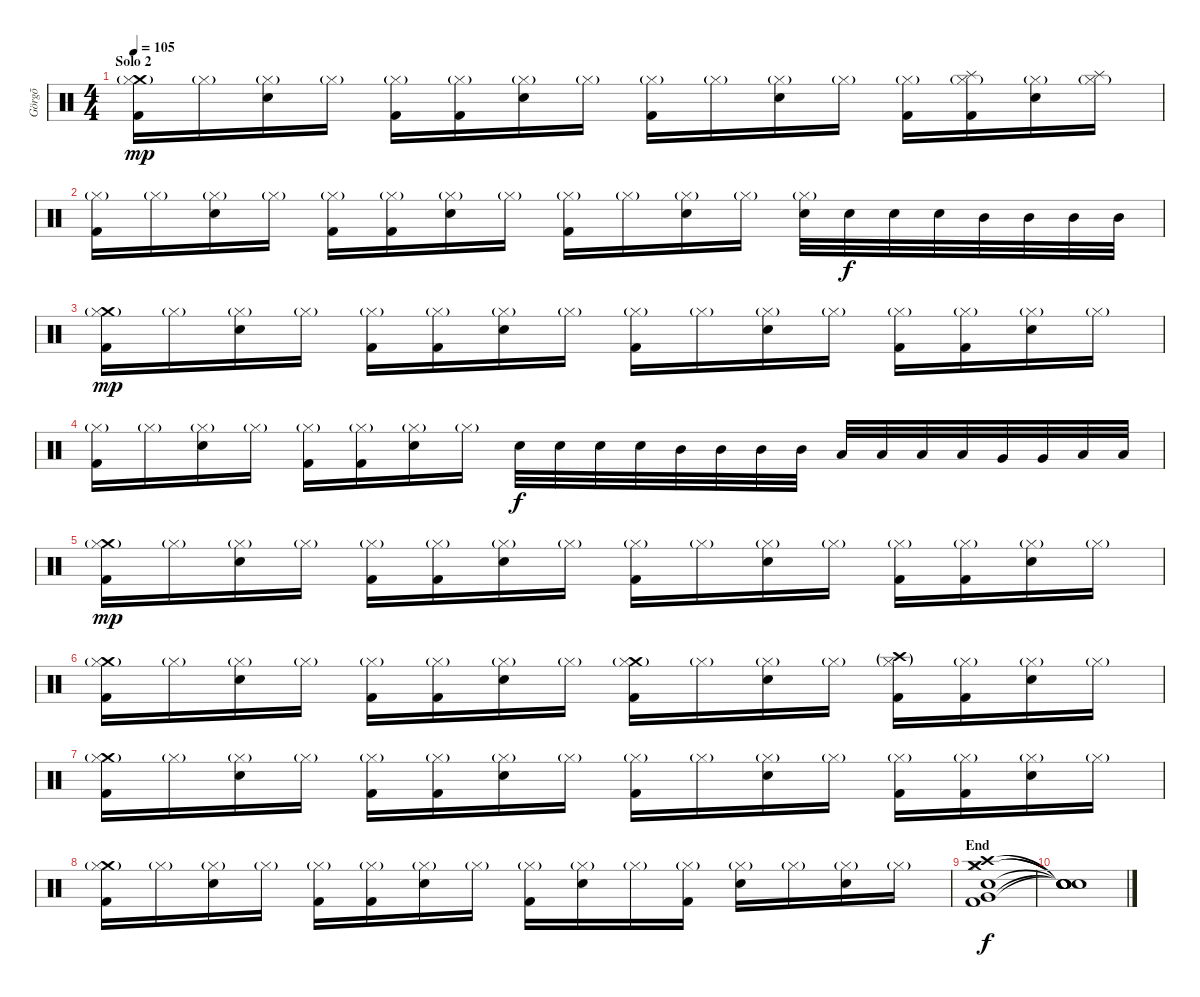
\track ("Görgõ" "Görgõ") {instrument percussion}
\staff {score}
\articulation defaults
\ts (4 4)
\section ("" "Solo 2")
\tempo 105
\clef neutral
\ks c
("Crash medium (hit)" "Hi-Hat (closed)"{g} "Kick (hit) 2").16{dy mp} "Hi-Hat (closed)"{g}.16 ("Hi-Hat (closed)"{g} "Snare (hit) 2").16 "Hi-Hat (closed)"{g}.16 ("Hi-Hat (closed)"{g} "Kick (hit) 2").16 ("Hi-Hat (closed)"{g} "Kick (hit) 2").16 ("Hi-Hat (closed)"{g} "Snare (hit) 2").16 "Hi-Hat (closed)"{g}.16 ("Hi-Hat (closed)"{g} "Kick (hit) 2").16 "Hi-Hat (closed)"{g}.16 ("Hi-Hat (closed)"{g} "Snare (hit) 2").16 "Hi-Hat (closed)"{g}.16 ("Hi-Hat (closed)"{g} "Kick (hit) 2").16 ("Splash (hit)" "Hi-Hat (closed)"{g} "Kick (hit) 2").16 ("Hi-Hat (closed)"{g} "Snare (hit) 2").16 ("Splash (hit)" "Hi-Hat (closed)"{g}).16 |
("Hi-Hat (closed)"{g} "Kick (hit) 2").16 "Hi-Hat (closed)"{g}.16 ("Hi-Hat (closed)"{g} "Snare (hit) 2").16 "Hi-Hat (closed)"{g}.16 ("Hi-Hat (closed)"{g} "Kick (hit) 2").16 ("Hi-Hat (closed)"{g} "Kick (hit) 2").16 ("Hi-Hat (closed)"{g} "Snare (hit) 2").16 "Hi-Hat (closed)"{g}.16 ("Hi-Hat (closed)"{g} "Kick (hit) 2").16 "Hi-Hat (closed)"{g}.16 ("Hi-Hat (closed)"{g} "Snare (hit) 2").16 "Hi-Hat (closed)"{g}.16 ("Hi-Hat (closed)"{g} "Snare (hit) 2").32 "Snare (hit) 2".32{dy f} "Snare (hit) 2".32 "Snare (hit) 2".32 "Mid Tom (hit)".32 "Mid Tom (hit)".32 "Mid Tom (hit)".32 "Mid Tom (hit)".32 |
("Crash medium (hit)" "Hi-Hat (closed)"{g} "Kick (hit) 2").16{dy mp} "Hi-Hat (closed)"{g}.16 ("Hi-Hat (closed)"{g} "Snare (hit) 2").16 "Hi-Hat (closed)"{g}.16 ("Hi-Hat (closed)"{g} "Kick (hit) 2").16 ("Hi-Hat (closed)"{g} "Kick (hit) 2").16 ("Hi-Hat (closed)"{g} "Snare (hit) 2").16 "Hi-Hat (closed)"{g}.16 ("Hi-Hat (closed)"{g} "Kick (hit) 2").16 "Hi-Hat (closed)"{g}.16 ("Hi-Hat (closed)"{g} "Snare (hit) 2").16 "Hi-Hat (closed)"{g}.16 ("Hi-Hat (closed)"{g} "Kick (hit) 2").16 ("Hi-Hat (closed)"{g} "Kick (hit) 2").16 ("Hi-Hat (closed)"{g} "Snare (hit) 2").16 "Hi-Hat (closed)"{g}.16 |
("Hi-Hat (closed)"{g} "Kick (hit) 2").16 "Hi-Hat (closed)"{g}.16 ("Hi-Hat (closed)"{g} "Snare (hit) 2").16 "Hi-Hat (closed)"{g}.16 ("Hi-Hat (closed)"{g} "Kick (hit) 2").16 ("Hi-Hat (closed)"{g} "Kick (hit) 2").16 ("Hi-Hat (closed)"{g} "Snare (hit) 2").16 "Hi-Hat (closed)"{g}.16 "Snare (hit) 2".32{dy f} "Snare (hit) 2".32 "Snare (hit) 2".32 "Snare (hit) 2".32 "Mid Tom (hit)".32 "Mid Tom (hit)".32 "Mid Tom (hit)".32 "Mid Tom (hit)".32 "Low Tom (hit)".32 "Low Tom (hit)".32 "Low Tom (hit)".32 "Low Tom (hit)".32 "Very Low Tom (hit)".32 "Very Low Tom (hit)".32 "Low Floor Tom (hit)".32 "Low Floor Tom (hit)".32 |
("Crash medium (hit)" "Hi-Hat (closed)"{g} "Kick (hit) 2").16{dy mp} "Hi-Hat (closed)"{g}.16 ("Hi-Hat (closed)"{g} "Snare (hit) 2").16 "Hi-Hat (closed)"{g}.16 ("Hi-Hat (closed)"{g} "Kick (hit) 2").16 ("Hi-Hat (closed)"{g} "Kick (hit) 2").16 ("Hi-Hat (closed)"{g} "Snare (hit) 2").16 "Hi-Hat (closed)"{g}.16 ("Hi-Hat (closed)"{g} "Kick (hit) 2").16 "Hi-Hat (closed)"{g}.16 ("Hi-Hat (closed)"{g} "Snare (hit) 2").16 "Hi-Hat (closed)"{g}.16 ("Hi-Hat (closed)"{g} "Kick (hit) 2").16 ("Hi-Hat (closed)"{g} "Kick (hit) 2").16 ("Hi-Hat (closed)"{g} "Snare (hit) 2").16 "Hi-Hat (closed)"{g}.16 |
("Crash medium (hit)" "Hi-Hat (closed)"{g} "Kick (hit) 2").16 "Hi-Hat (closed)"{g}.16 ("Hi-Hat (closed)"{g} "Snare (hit) 2").16 "Hi-Hat (closed)"{g}.16 ("Hi-Hat (closed)"{g} "Kick (hit) 2").16 ("Hi-Hat (closed)"{g} "Kick (hit) 2").16 ("Hi-Hat (closed)"{g} "Snare (hit) 2").16 "Hi-Hat (closed)"{g}.16 ("Crash medium (hit)"{g} "Hi-Hat (closed)"{g} "Kick (hit) 2").16 "Hi-Hat (closed)"{g}.16 ("Hi-Hat (closed)"{g} "Snare (hit) 2").16 "Hi-Hat (closed)"{g}.16 ("Crash high (hit)"{g} "Hi-Hat (closed)"{g} "Kick (hit) 2").16 ("Hi-Hat (closed)"{g} "Kick (hit) 2").16 ("Hi-Hat (closed)"{g} "Snare (hit) 2").16 "Hi-Hat (closed)"{g}.16 |
("Crash medium (hit)" "Hi-Hat (closed)"{g} "Kick (hit) 2").16 "Hi-Hat (closed)"{g}.16 ("Hi-Hat (closed)"{g} "Snare (hit) 2").16 "Hi-Hat (closed)"{g}.16 ("Hi-Hat (closed)"{g} "Kick (hit) 2").16 ("Hi-Hat (closed)"{g} "Kick (hit) 2").16 ("Hi-Hat (closed)"{g} "Snare (hit) 2").16 "Hi-Hat (closed)"{g}.16 ("Hi-Hat (closed)"{g} "Kick (hit) 2").16 "Hi-Hat (closed)"{g}.16 ("Hi-Hat (closed)"{g} "Snare (hit) 2").16 "Hi-Hat (closed)"{g}.16 ("Hi-Hat (closed)"{g} "Kick (hit) 2").16 ("Hi-Hat (closed)"{g} "Kick (hit) 2").16 ("Hi-Hat (closed)"{g} "Snare (hit) 2").16 "Hi-Hat (closed)"{g}.16 |
("Crash medium (hit)" "Hi-Hat (closed)"{g} "Kick (hit) 2").16 "Hi-Hat (closed)"{g}.16 ("Hi-Hat (closed)"{g} "Snare (hit) 2").16 "Hi-Hat (closed)"{g}.16 ("Hi-Hat (closed)"{g} "Kick (hit) 2").16 ("Hi-Hat (closed)"{g} "Kick (hit) 2").16 ("Hi-Hat (closed)"{g} "Snare (hit) 2").16 "Hi-Hat (closed)"{g}.16 ("Hi-Hat (closed)"{g} "Kick (hit) 2").16 ("Hi-Hat (closed)"{g} "Snare (hit) 2").16 "Hi-Hat (closed)"{g}.16 ("Hi-Hat (closed)"{g} "Kick (hit) 2").16 ("Hi-Hat (closed)"{g} "Snare (hit) 2").16 "Hi-Hat (closed)"{g}.16 ("Hi-Hat (closed)"{g} "Snare (hit) 2").16 "Hi-Hat (closed)"{g}.16 |
\section ("" "End")
("Crash high (hit)" "Crash medium (hit)" "Hi-Hat (closed)" "Very Low Tom (hit)" "Snare (hit) 2" "Kick (hit) 2").1{dy f} |
("Snare (hit)"{t} "Snare (hit)"{t} "Snare (hit)"{t} "Snare (hit)"{t} "Snare (hit)"{t} "Snare (hit)"{t}).1
